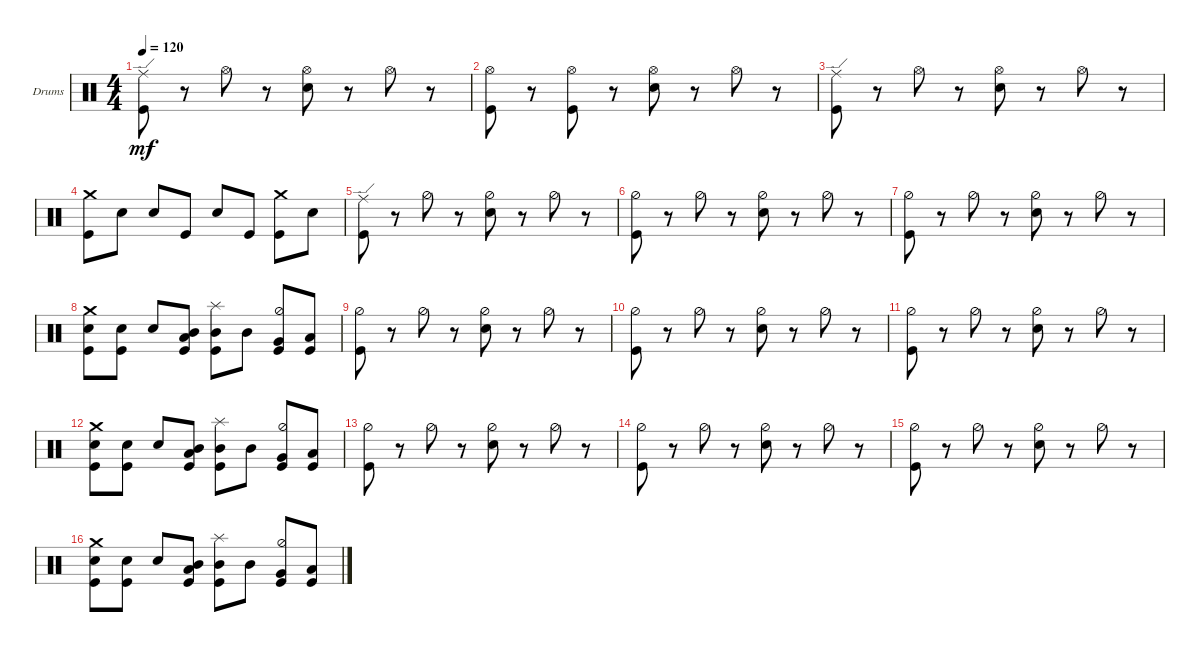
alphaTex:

\bracketExtendMode groupsimilarinstruments
\firstSystemTrackNameOrientation horizontal
\otherSystemsTrackNameOrientation horizontal
\track ("Drumkit" "Drums") {instrument percussion}
\staff {score}
\articulation defaults
\ts (4 4)
\tempo 120
\clef neutral
\ks c
("Kick (hit)" "Ride (edge)").8{dy mf} r.8 "Hi-Hat (open)".8 r.8 ("Snare (hit) 2" "Hi-Hat (open)").8 r.8 "Hi-Hat (open)".8 r.8 |
("Kick (hit)" "Hi-Hat (open)").8 r.8 ("Kick (hit)" "Hi-Hat (open)").8 r.8 ("Snare (hit) 2" "Hi-Hat (open)").8 r.8 "Hi-Hat (open)".8 r.8 |
("Kick (hit)" "Ride (edge)").8 r.8 "Hi-Hat (open)".8 r.8 ("Snare (hit) 2" "Hi-Hat (open)").8 r.8 "Hi-Hat (open)".8 r.8 |
("Kick (hit)" "Crash medium (hit)").8 "Snare (hit) 2".8 "Snare (hit) 2".8 "Kick (hit)".8 "Snare (hit) 2".8 "Kick (hit)".8 ("Kick (hit)" "Crash medium (hit)").8 "Snare (hit) 2".8 |
("Kick (hit)" "Ride (edge)").8 r.8 "Hi-Hat (half)".8 r.8 ("Snare (hit) 2" "Hi-Hat (half)").8 r.8 "Hi-Hat (half)".8 r.8 |
("Kick (hit)" "Hi-Hat (half)").8 r.8 "Hi-Hat (half)".8 r.8 ("Snare (hit) 2" "Hi-Hat (half)").8 r.8 "Hi-Hat (half)".8 r.8 |
("Kick (hit)" "Hi-Hat (half)").8 r.8 "Hi-Hat (half)".8 r.8 ("Snare (hit) 2" "Hi-Hat (half)").8 r.8 "Hi-Hat (half)".8 r.8 |
("Kick (hit)" "Snare (hit) 2" "Crash medium (hit)").8 ("Snare (hit) 2" "Kick (hit)").8 "Snare (hit) 2".8 ("Kick (hit)" "Low Tom (hit)" "Mid Tom (hit)").8 ("Kick (hit)" "Mid Tom (hit)" "Splash (hit)").8 "Mid Tom (hit)".8 ("Kick (hit)" "Hi-Hat (half)" "Very Low Tom (hit)").8 ("Kick (hit)" "Low Tom (hit)").8 |
("Kick (hit)" "Hi-Hat (half)").8 r.8 "Hi-Hat (half)".8 r.8 ("Snare (hit) 2" "Hi-Hat (half)").8 r.8 "Hi-Hat (half)".8 r.8 |
("Kick (hit)" "Hi-Hat (half)").8 r.8 "Hi-Hat (half)".8 r.8 ("Snare (hit) 2" "Hi-Hat (half)").8 r.8 "Hi-Hat (half)".8 r.8 |
("Kick (hit)" "Hi-Hat (half)").8 r.8 "Hi-Hat (half)".8 r.8 ("Snare (hit) 2" "Hi-Hat (half)").8 r.8 "Hi-Hat (half)".8 r.8 |
("Kick (hit)" "Snare (hit) 2" "Crash medium (hit)").8 ("Snare (hit) 2" "Kick (hit)").8 "Snare (hit) 2".8 ("Kick (hit)" "Low Tom (hit)" "Mid Tom (hit)").8 ("Kick (hit)" "Mid Tom (hit)" "Splash (hit)").8 "Mid Tom (hit)".8 ("Kick (hit)" "Hi-Hat (half)" "Very Low Tom (hit)").8 ("Kick (hit)" "Low Tom (hit)").8 |
("Kick (hit)" "Hi-Hat (half)").8 r.8 "Hi-Hat (half)".8 r.8 ("Snare (hit) 2" "Hi-Hat (half)").8 r.8 "Hi-Hat (half)".8 r.8 |
("Kick (hit)" "Hi-Hat (half)").8 r.8 "Hi-Hat (half)".8 r.8 ("Snare (hit) 2" "Hi-Hat (half)").8 r.8 "Hi-Hat (half)".8 r.8 |
("Kick (hit)" "Hi-Hat (half)").8 r.8 "Hi-Hat (half)".8 r.8 ("Snare (hit) 2" "Hi-Hat (half)").8 r.8 "Hi-Hat (half)".8 r.8 |
("Kick (hit)" "Snare (hit) 2" "Crash medium (hit)").8 ("Snare (hit) 2" "Kick (hit)").8 "Snare (hit) 2".8 ("Kick (hit)" "Low Tom (hit)" "Mid Tom (hit)").8 ("Kick (hit)" "Mid Tom (hit)" "Splash (hit)").8 "Mid Tom (hit)".8 ("Kick (hit)" "Hi-Hat (half)" "Very Low Tom (hit)").8 ("Kick (hit)" "Low Tom (hit)").8
